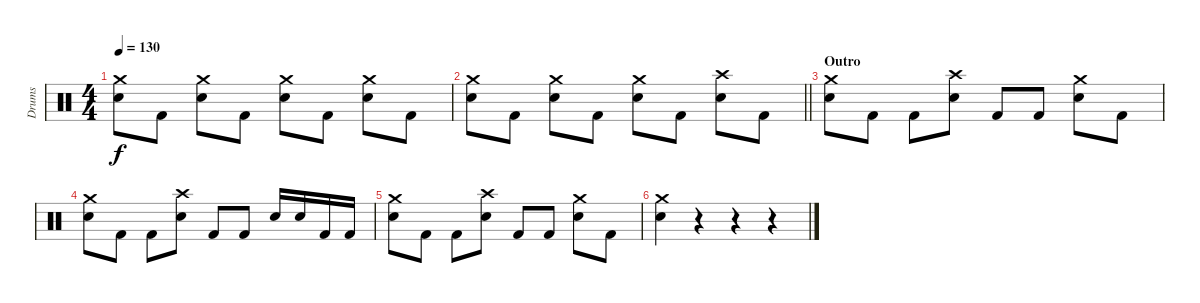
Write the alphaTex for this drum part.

\track ("Drums" "Drums") {instrument percussion}
\staff {score}
\articulation defaults
\ts (4 4)
\tempo 130
\clef neutral
\ks c
("Crash medium (hit)" "Electric Snare (hit)").8{dy f} "Kick (hit) 2".8 ("Crash medium (hit)" "Electric Snare (hit)").8 "Kick (hit) 2".8 ("Crash medium (hit)" "Electric Snare (hit)").8 "Kick (hit) 2".8 ("Crash medium (hit)" "Electric Snare (hit)").8 "Kick (hit) 2".8 |
\barLineRight lightlight
("Crash medium (hit)" "Electric Snare (hit)").8 "Kick (hit) 2".8 ("Crash medium (hit)" "Electric Snare (hit)").8 "Kick (hit) 2".8 ("Crash medium (hit)" "Electric Snare (hit)").8 "Kick (hit) 2".8 ("Crash high (hit)" "Electric Snare (hit)").8 "Kick (hit) 2".8 |
\section ("" "Outro")
("Crash medium (hit)" "Electric Snare (hit)").8 "Kick (hit) 2".8 "Kick (hit) 2".8 ("Crash high (hit)" "Electric Snare (hit)").8 "Kick (hit) 2".8 "Kick (hit) 2".8 ("Crash medium (hit)" "Electric Snare (hit)").8 "Kick (hit) 2".8 |
("Crash medium (hit)" "Electric Snare (hit)").8 "Kick (hit) 2".8 "Kick (hit) 2".8 ("Crash high (hit)" "Electric Snare (hit)").8 "Kick (hit) 2".8 "Kick (hit) 2".8 "Electric Snare (hit)".16 "Electric Snare (hit)".16 "Kick (hit) 2".16 "Kick (hit) 2".16 |
("Crash medium (hit)" "Electric Snare (hit)").8 "Kick (hit) 2".8 "Kick (hit) 2".8 ("Crash high (hit)" "Electric Snare (hit)").8 "Kick (hit) 2".8 "Kick (hit) 2".8 ("Crash medium (hit)" "Electric Snare (hit)").8 "Kick (hit) 2".8 |
("Crash medium (hit)" "Electric Snare (hit)").4 r.4 r.4 r.4
